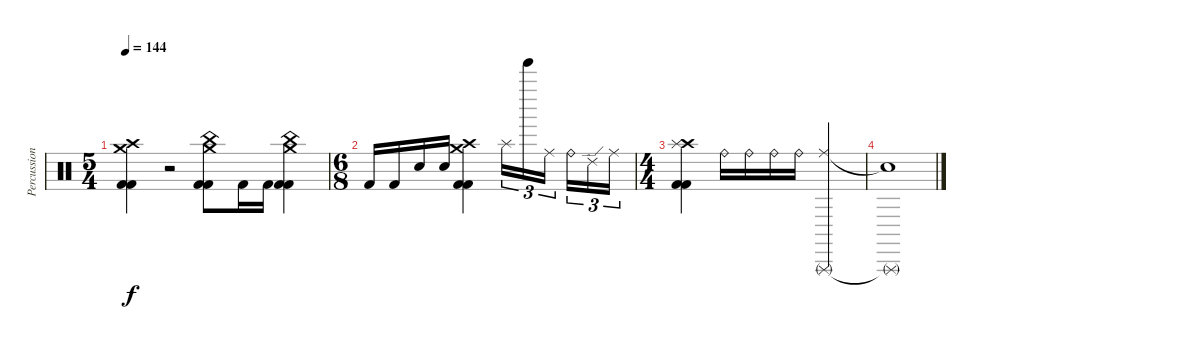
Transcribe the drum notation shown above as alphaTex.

\track ("Percussion" "Percussion") {instrument percussion}
\staff {score}
\articulation defaults
\ts (5 4)
\tempo 144
\clef neutral
\ks c
("Crash medium (hit)" "Crash high (hit)" "Kick (hit) 2" "Kick (hit) 2").4{dy f} r.2 ("China (hit)" "Crash medium (hit)" "Kick (hit) 2" "Kick (hit) 2").8 "Kick (hit) 2".16 "Kick (hit) 2".16 ("China (hit)" "Crash medium (hit)" "Kick (hit) 2" "Kick (hit) 2").4 |
\ts (6 8)
"Kick (hit) 2".16 "Kick (hit) 2".16 "Electric Snare (hit)".16 "Electric Snare (hit)".16 ("Crash high (hit)" "Crash medium (hit)" "Kick (hit) 2" "Kick (hit) 2").4 "Splash (hit)".16{tu (3 2)} "Tinkle Bell (hit)".16{tu (3 2)} "Ride (middle)".16{tu (3 2)} "Ride (bell)".16{tu (3 2)} "Ride (edge) 2".16{tu (3 2)} "Ride (middle)".16{tu (3 2)} |
\ts (4 4)
("Crash high (hit)" "Splash (hit)" "Kick (hit) 2" "Kick (hit) 2").4 "Ride (bell)".16 "Ride (bell)".16 "Ride (bell)".16 "Ride (bell)".16 ("Triangle (rnute)" "Ride (middle)").2 |
("Triangle (rnute)"{t} "Snare (hit)"{t}).1
